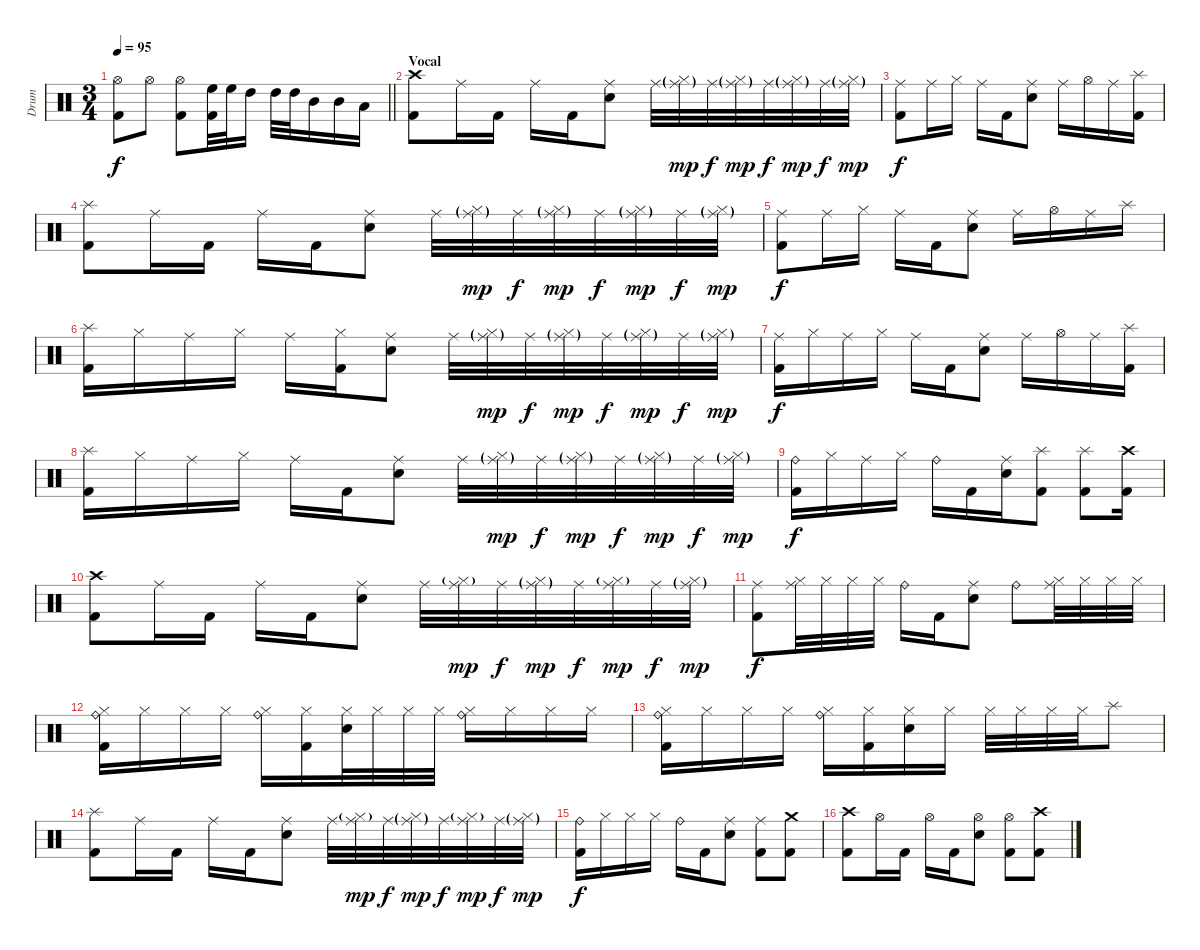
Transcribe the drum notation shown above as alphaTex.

\track ("Drum" "Drum") {instrument percussion}
\staff {score}
\articulation defaults
\ts (3 4)
\tempo 95
\clef neutral
\barLineRight lightlight
\ks c
("Hi-Hat (open)" "Kick (hit) 2").8{dy f} "Hi-Hat (open)".8 ("Hi-Hat (open)" "Kick (hit) 2").8 ("High Floor Tom (hit)" "Kick (hit) 2").32 "High Floor Tom (hit)".32 "High Tom (hit)".16 "High Tom (hit)".32 "High Tom (hit)".32 "Mid Tom (hit)".16 "Mid Tom (hit)".16 "Low Tom (hit)".16 |
\section ("" "Vocal")
("Crash high (hit)" "Kick (hit) 2").8 "Ride (middle)".16 "Kick (hit) 2".16 "Ride (middle)".16 "Kick (hit) 2".16 ("Ride (middle)" "Electric Snare (hit)").8 "Ride (middle)".32 ("Ride (middle)"{g} "Hi-Hat (closed)"{g}).32{dy mp} "Ride (middle)".32{dy f} ("Ride (middle)"{g} "Hi-Hat (closed)"{g}).32{dy mp} "Ride (middle)".32{dy f} ("Ride (middle)"{g} "Hi-Hat (closed)"{g}).32{dy mp} "Ride (middle)".32{dy f} ("Ride (middle)"{g} "Hi-Hat (closed)"{g}).32{dy mp} |
("Ride (middle)" "Kick (hit) 2").8{dy f} "Ride (middle)".16 "Hi-Hat (closed)".16 "Ride (middle)".16 "Kick (hit) 2".16 ("Ride (middle)" "Electric Snare (hit)").8 "Ride (middle)".16 "Hi-Hat (open)".16 "Ride (middle)".16 ("Splash (hit)" "Kick (hit) 2").16 |
("Splash (hit)" "Kick (hit) 2").8 "Ride (middle)".16 "Kick (hit) 2".16 "Ride (middle)".16 "Kick (hit) 2".16 ("Ride (middle)" "Electric Snare (hit)").8 "Ride (middle)".32 ("Ride (middle)"{g} "Hi-Hat (closed)"{g}).32{dy mp} "Ride (middle)".32{dy f} ("Ride (middle)"{g} "Hi-Hat (closed)"{g}).32{dy mp} "Ride (middle)".32{dy f} ("Ride (middle)"{g} "Hi-Hat (closed)"{g}).32{dy mp} "Ride (middle)".32{dy f} ("Ride (middle)"{g} "Hi-Hat (closed)"{g}).32{dy mp} |
("Ride (middle)" "Kick (hit) 2").8{dy f} "Ride (middle)".16 "Hi-Hat (closed)".16 "Ride (middle)".16 "Kick (hit) 2".16 ("Ride (middle)" "Electric Snare (hit)").8 "Ride (middle)".16 "Hi-Hat (open)".16 "Ride (middle)".16 "Splash (hit)".16 |
("Splash (hit)" "Kick (hit) 2").16 "Hi-Hat (closed)".16 "Ride (middle)".16 "Hi-Hat (closed)".16 "Ride (middle)".16 ("Hi-Hat (closed)" "Kick (hit) 2").16 ("Ride (middle)" "Electric Snare (hit)").8 "Ride (middle)".32 ("Ride (middle)"{g} "Hi-Hat (closed)"{g}).32{dy mp} "Ride (middle)".32{dy f} ("Ride (middle)"{g} "Hi-Hat (closed)"{g}).32{dy mp} "Ride (middle)".32{dy f} ("Ride (middle)"{g} "Hi-Hat (closed)"{g}).32{dy mp} "Ride (middle)".32{dy f} ("Ride (middle)"{g} "Hi-Hat (closed)"{g}).32{dy mp} |
("Ride (middle)" "Kick (hit) 2").16{dy f} "Hi-Hat (closed)".16 "Ride (middle)".16 "Hi-Hat (closed)".16 "Ride (middle)".16 "Kick (hit) 2".16 ("Ride (middle)" "Electric Snare (hit)").8 "Ride (middle)".16 "Hi-Hat (open)".16 "Ride (middle)".16 ("Splash (hit)" "Kick (hit) 2").16 |
("Splash (hit)" "Kick (hit) 2").16 "Hi-Hat (closed)".16 "Ride (middle)".16 "Hi-Hat (closed)".16 "Ride (middle)".16 "Kick (hit) 2".16 ("Ride (middle)" "Electric Snare (hit)").8 "Ride (middle)".32 ("Ride (middle)"{g} "Hi-Hat (closed)"{g}).32{dy mp} "Ride (middle)".32{dy f} ("Ride (middle)"{g} "Hi-Hat (closed)"{g}).32{dy mp} "Ride (middle)".32{dy f} ("Ride (middle)"{g} "Hi-Hat (closed)"{g}).32{dy mp} "Ride (middle)".32{dy f} ("Ride (middle)"{g} "Hi-Hat (closed)"{g}).32{dy mp} |
("Ride (bell)" "Kick (hit) 2").16{dy f} "Hi-Hat (closed)".16 "Ride (middle)".16 "Hi-Hat (closed)".16 "Ride (bell)".16 "Kick (hit) 2".16 ("Ride (middle)" "Electric Snare (hit)").16 ("Splash (hit)" "Kick (hit) 2").8 ("Splash (hit)" "Kick (hit) 2").8 ("Crash high (hit)" "Kick (hit) 2").16 |
("Crash high (hit)" "Kick (hit) 2").8 "Ride (middle)".16 "Kick (hit) 2".16 "Ride (middle)".16 "Kick (hit) 2".16 ("Ride (middle)" "Electric Snare (hit)").8 "Ride (middle)".32 ("Ride (middle)" "Hi-Hat (closed)"{g}).32{dy mp} "Ride (middle)".32{dy f} ("Ride (middle)"{g} "Hi-Hat (closed)"{g}).32{dy mp} "Ride (middle)".32{dy f} ("Ride (middle)" "Hi-Hat (closed)"{g}).32{dy mp} "Ride (middle)".32{dy f} ("Ride (middle)"{g} "Hi-Hat (closed)"{g}).32{dy mp} |
("Ride (middle)" "Kick (hit) 2").8{dy f} ("Ride (middle)" "Hi-Hat (closed)").32 "Hi-Hat (closed)".32 "Hi-Hat (closed)".32 "Hi-Hat (closed)".32 "Ride (bell)".16 "Kick (hit) 2".16 ("Ride (middle)" "Electric Snare (hit)").8 "Ride (bell)".8 ("Ride (middle)" "Hi-Hat (closed)").32 "Hi-Hat (closed)".32 "Hi-Hat (closed)".32 "Hi-Hat (closed)".32 |
("Ride (bell)" "Hi-Hat (closed)" "Kick (hit) 2").16 "Hi-Hat (closed)".16 "Hi-Hat (closed)".16 "Hi-Hat (closed)".16 ("Ride (bell)" "Hi-Hat (closed)").16 ("Hi-Hat (closed)" "Kick (hit) 2").16 ("Hi-Hat (closed)" "Electric Snare (hit)").32 "Hi-Hat (closed)".32 "Hi-Hat (closed)".32 "Hi-Hat (closed)".32 ("Ride (bell)" "Hi-Hat (closed)").16 "Hi-Hat (closed)".16 "Hi-Hat (closed)".16 "Hi-Hat (closed)".16 |
("Ride (bell)" "Hi-Hat (closed)" "Kick (hit) 2").16 "Hi-Hat (closed)".16 "Hi-Hat (closed)".16 "Hi-Hat (closed)".16 ("Ride (bell)" "Hi-Hat (closed)").16 ("Hi-Hat (closed)" "Kick (hit) 2").16 ("Hi-Hat (closed)" "Electric Snare (hit)").16 "Hi-Hat (closed)".16 "Hi-Hat (closed)".32 "Hi-Hat (closed)".32 "Hi-Hat (closed)".32 "Hi-Hat (closed)".32 "Splash (hit)".8 |
("Splash (hit)" "Kick (hit) 2").8 "Ride (middle)".16 "Kick (hit) 2".16 "Ride (middle)".16 "Kick (hit) 2".16 ("Ride (middle)" "Electric Snare (hit)").8 "Ride (middle)".32 ("Ride (middle)" "Hi-Hat (closed)"{g}).32{dy mp} "Ride (middle)".32{dy f} ("Ride (middle)"{g} "Hi-Hat (closed)"{g}).32{dy mp} "Ride (middle)".32{dy f} ("Ride (middle)" "Hi-Hat (closed)"{g}).32{dy mp} "Ride (middle)".32{dy f} ("Ride (middle)"{g} "Hi-Hat (closed)"{g}).32{dy mp} |
("Ride (bell)" "Kick (hit) 2").16{dy f} "Hi-Hat (closed)".16 "Hi-Hat (closed)".16 "Hi-Hat (closed)".16 "Ride (bell)".16 "Kick (hit) 2".16 ("Ride (middle)" "Electric Snare (hit)").8 ("Ride (middle)" "Kick (hit) 2").8 ("Crash medium (hit)" "Kick (hit) 2").8 |
("Crash high (hit)" "Kick (hit) 2").8 "Hi-Hat (open)".16 "Kick (hit) 2".16 "Hi-Hat (open)".16 "Kick (hit) 2".16 ("Hi-Hat (open)" "Electric Snare (hit)").8 ("Hi-Hat (open)" "Kick (hit) 2").8 ("Crash high (hit)" "Kick (hit) 2").8
